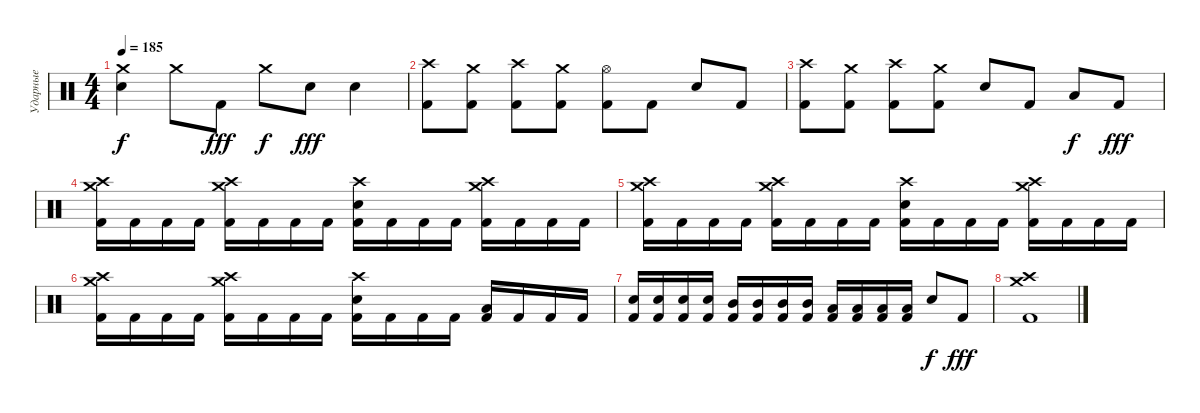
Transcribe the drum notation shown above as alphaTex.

\track ("Ударные" "Ударные") {instrument percussion}
\staff {score}
\articulation defaults
\ts (4 4)
\tempo 185
\clef neutral
\ks c
("Crash medium (hit)" "Electric Snare (hit)").4{dy f} "Crash medium (hit)".8 "Kick (hit) 2".8{dy fff} "Crash medium (hit)".8{dy f} "Electric Snare (hit)".8{dy fff} "Electric Snare (hit)".4 |
("Crash high (hit)" "Kick (hit) 2").8 ("Crash medium (hit)" "Kick (hit) 2").8 ("Crash high (hit)" "Kick (hit) 2").8 ("Crash medium (hit)" "Kick (hit) 2").8 ("Hi-Hat (open)" "Kick (hit) 2").8 "Kick (hit) 2".8 "Electric Snare (hit)".8 "Kick (hit) 2".8 |
("Crash high (hit)" "Kick (hit) 2").8 ("Crash medium (hit)" "Kick (hit) 2").8 ("Crash high (hit)" "Kick (hit) 2").8 ("Crash medium (hit)" "Kick (hit) 2").8 "Electric Snare (hit)".8 "Kick (hit) 2".8 "Low Floor Tom (hit)".8{dy f} "Kick (hit) 2".8{dy fff} |
("Crash medium (hit)" "Crash high (hit)" "Kick (hit) 2").16 "Kick (hit) 2".16 "Kick (hit) 2".16 "Kick (hit) 2".16 ("Crash medium (hit)" "Crash high (hit)" "Kick (hit) 2").16 "Kick (hit) 2".16 "Kick (hit) 2".16 "Kick (hit) 2".16 ("Crash high (hit)" "Electric Snare (hit)" "Kick (hit) 2").16 "Kick (hit) 2".16 "Kick (hit) 2".16 "Kick (hit) 2".16 ("Crash medium (hit)" "Crash high (hit)" "Kick (hit) 2").16 "Kick (hit) 2".16 "Kick (hit) 2".16 "Kick (hit) 2".16 |
("Crash medium (hit)" "Crash high (hit)" "Kick (hit) 2").16 "Kick (hit) 2".16 "Kick (hit) 2".16 "Kick (hit) 2".16 ("Crash medium (hit)" "Crash high (hit)" "Kick (hit) 2").16 "Kick (hit) 2".16 "Kick (hit) 2".16 "Kick (hit) 2".16 ("Crash high (hit)" "Electric Snare (hit)" "Kick (hit) 2").16 "Kick (hit) 2".16 "Kick (hit) 2".16 "Kick (hit) 2".16 ("Crash medium (hit)" "Crash high (hit)" "Kick (hit) 2").16 "Kick (hit) 2".16 "Kick (hit) 2".16 "Kick (hit) 2".16 |
("Crash medium (hit)" "Crash high (hit)" "Kick (hit) 2").16 "Kick (hit) 2".16 "Kick (hit) 2".16 "Kick (hit) 2".16 ("Crash medium (hit)" "Crash high (hit)" "Kick (hit) 2").16 "Kick (hit) 2".16 "Kick (hit) 2".16 "Kick (hit) 2".16 ("Crash high (hit)" "Electric Snare (hit)" "Kick (hit) 2").16 "Kick (hit) 2".16 "Kick (hit) 2".16 "Kick (hit) 2".16 ("Low Floor Tom (hit)" "Kick (hit) 2").16 "Kick (hit) 2".16 "Kick (hit) 2".16 "Kick (hit) 2".16 |
("Electric Snare (hit)" "Kick (hit) 2").16 ("Electric Snare (hit)" "Kick (hit) 2").16 ("Electric Snare (hit)" "Kick (hit) 2").16 ("Electric Snare (hit)" "Kick (hit) 2").16 ("Mid Tom (hit)" "Kick (hit) 2").16 ("Mid Tom (hit)" "Kick (hit) 2").16 ("Mid Tom (hit)" "Kick (hit) 2").16 ("Mid Tom (hit)" "Kick (hit) 2").16 ("Low Tom (hit)" "Kick (hit) 2").16 ("Low Tom (hit)" "Kick (hit) 2").16 ("Low Tom (hit)" "Kick (hit) 2").16 ("Low Tom (hit)" "Kick (hit) 2").16 "Electric Snare (hit)".8{dy f} "Kick (hit) 2".8{dy fff} |
("Crash medium (hit)" "Crash high (hit)" "Kick (hit) 2").1
